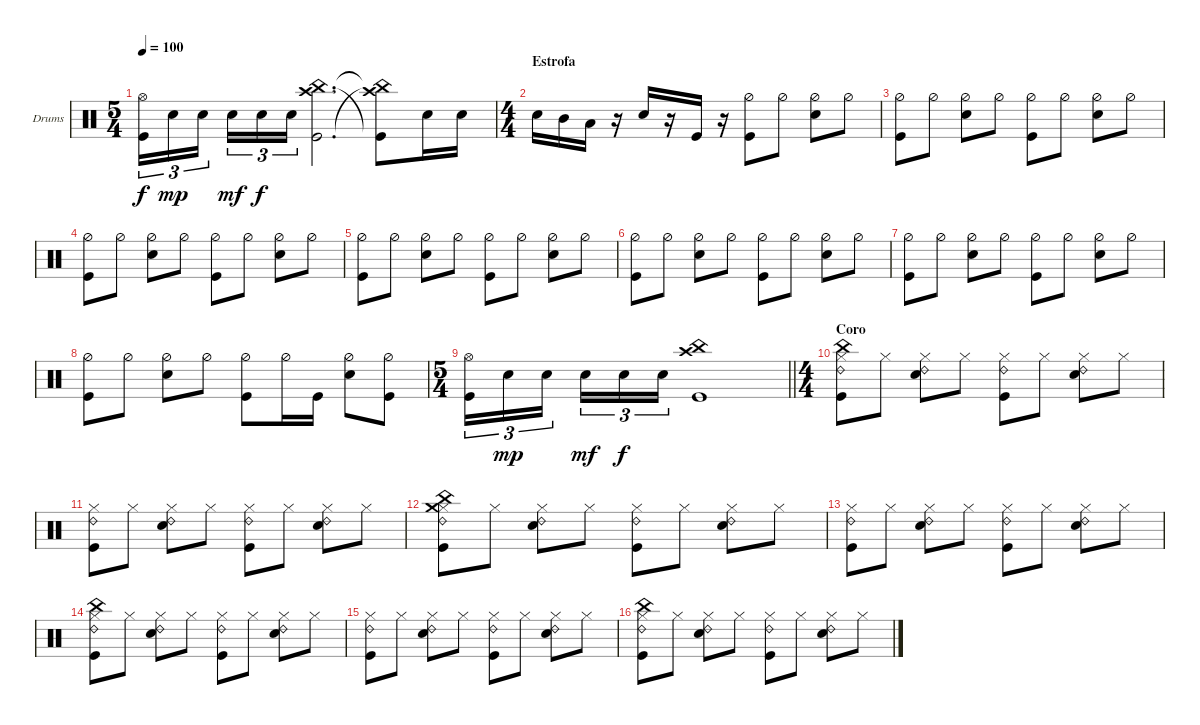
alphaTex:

\defaultSystemsLayout 4
\bracketExtendMode groupsimilarinstruments
\firstSystemTrackNameOrientation horizontal
\otherSystemsTrackNameOrientation horizontal
\track ("Drumkit" "Drums") {instrument percussion}
\staff {score}
\articulation defaults
\ts (5 4)
\tempo 100
\clef neutral
\ks c
("Hi-Hat (open)" "Kick (hit)").16{tu (3 2) dy f} "Snare (hit) 2".16{tu (3 2) dy mp} "Snare (hit) 2".16{tu (3 2)} "Snare (hit) 2".16{tu (3 2) dy mf} "Snare (hit) 2".16{tu (3 2) dy f} "Snare (hit) 2".16{tu (3 2)} ("Crash high (hit)" "Kick (hit)" "China (hit)").2{d} ("Kick (hit)"{t} "Crash high (hit)"{t} "China (hit)"{t}).8 "Snare (hit) 2".16 "Snare (hit) 2".16 |
\ts (4 4)
\section ("" "Estrofa")
"Snare (hit) 2".16 "Mid Tom (hit)".16 "Low Tom (hit)".16 r.16 "Snare (hit) 2".16 r.16 "Kick (hit)".16 r.16 ("Hi-Hat (half)" "Kick (hit)").8 "Hi-Hat (half)".8 ("Hi-Hat (half)" "Snare (hit) 2").8 "Hi-Hat (half)".8 |
("Hi-Hat (half)" "Kick (hit)").8 "Hi-Hat (half)".8 ("Hi-Hat (half)" "Snare (hit) 2").8 "Hi-Hat (half)".8 ("Hi-Hat (half)" "Kick (hit)").8 "Hi-Hat (half)".8 ("Hi-Hat (half)" "Snare (hit) 2").8 "Hi-Hat (half)".8 |
("Hi-Hat (half)" "Kick (hit)").8 "Hi-Hat (half)".8 ("Hi-Hat (half)" "Snare (hit) 2").8 "Hi-Hat (half)".8 ("Hi-Hat (half)" "Kick (hit)").8 "Hi-Hat (half)".8 ("Hi-Hat (half)" "Snare (hit) 2").8 "Hi-Hat (half)".8 |
("Hi-Hat (half)" "Kick (hit)").8 "Hi-Hat (half)".8 ("Hi-Hat (half)" "Snare (hit) 2").8 "Hi-Hat (half)".8 ("Hi-Hat (half)" "Kick (hit)").8 "Hi-Hat (half)".8 ("Hi-Hat (half)" "Snare (hit) 2").8 "Hi-Hat (half)".8 |
("Hi-Hat (half)" "Kick (hit)").8 "Hi-Hat (half)".8 ("Hi-Hat (half)" "Snare (hit) 2").8 "Hi-Hat (half)".8 ("Hi-Hat (half)" "Kick (hit)").8 "Hi-Hat (half)".8 ("Hi-Hat (half)" "Snare (hit) 2").8 "Hi-Hat (half)".8 |
("Hi-Hat (half)" "Kick (hit)").8 "Hi-Hat (half)".8 ("Hi-Hat (half)" "Snare (hit) 2").8 "Hi-Hat (half)".8 ("Hi-Hat (half)" "Kick (hit)").8 "Hi-Hat (half)".8 ("Hi-Hat (half)" "Snare (hit) 2").8 "Hi-Hat (half)".8 |
("Hi-Hat (half)" "Kick (hit)").8 "Hi-Hat (half)".8 ("Hi-Hat (half)" "Snare (hit) 2").8 "Hi-Hat (half)".8 ("Hi-Hat (half)" "Kick (hit)").8 "Hi-Hat (half)".16 "Kick (hit)".16 ("Hi-Hat (half)" "Snare (hit) 2").8 ("Hi-Hat (half)" "Kick (hit)").8 |
\ts (5 4)
\barLineRight lightlight
("Hi-Hat (open)" "Kick (hit)").16{tu (3 2)} "Snare (hit) 2".16{tu (3 2) dy mp} "Snare (hit) 2".16{tu (3 2)} "Snare (hit) 2".16{tu (3 2) dy mf} "Snare (hit) 2".16{tu (3 2) dy f} "Snare (hit) 2".16{tu (3 2)} ("Crash high (hit)" "Kick (hit)" "China (hit)").1 |
\ts (4 4)
\section ("" "Coro")
("Ride (bell) 2" "Kick (hit)" "Hi-Hat (closed)" "China (hit)").8 "Hi-Hat (closed)".8 ("Hi-Hat (closed)" "Ride (bell) 2" "Snare (hit) 2").8 "Hi-Hat (closed)".8 ("Hi-Hat (closed)" "Ride (bell) 2" "Kick (hit)").8 "Hi-Hat (closed)".8 ("Hi-Hat (closed)" "Ride (bell) 2" "Snare (hit) 2").8 "Hi-Hat (closed)".8 |
("Ride (bell) 2" "Kick (hit)" "Hi-Hat (closed)").8 "Hi-Hat (closed)".8 ("Hi-Hat (closed)" "Ride (bell) 2" "Snare (hit) 2").8 "Hi-Hat (closed)".8 ("Hi-Hat (closed)" "Ride (bell) 2" "Kick (hit)").8 "Hi-Hat (closed)".8 ("Hi-Hat (closed)" "Ride (bell) 2" "Snare (hit) 2").8 "Hi-Hat (closed)".8 |
("Ride (bell) 2" "Kick (hit)" "Hi-Hat (closed)" "Crash medium (hit)" "China (hit)").8 "Hi-Hat (closed)".8 ("Hi-Hat (closed)" "Ride (bell) 2" "Snare (hit) 2").8 "Hi-Hat (closed)".8 ("Hi-Hat (closed)" "Ride (bell) 2" "Kick (hit)").8 "Hi-Hat (closed)".8 ("Hi-Hat (closed)" "Ride (bell) 2" "Snare (hit) 2").8 "Hi-Hat (closed)".8 |
("Ride (bell) 2" "Kick (hit)" "Hi-Hat (closed)").8 "Hi-Hat (closed)".8 ("Hi-Hat (closed)" "Ride (bell) 2" "Snare (hit) 2").8 "Hi-Hat (closed)".8 ("Hi-Hat (closed)" "Ride (bell) 2" "Kick (hit)").8 "Hi-Hat (closed)".8 ("Hi-Hat (closed)" "Ride (bell) 2" "Snare (hit) 2").8 "Hi-Hat (closed)".8 |
("Ride (bell) 2" "Kick (hit)" "Hi-Hat (closed)" "China (hit)").8 "Hi-Hat (closed)".8 ("Hi-Hat (closed)" "Ride (bell) 2" "Snare (hit) 2").8 "Hi-Hat (closed)".8 ("Hi-Hat (closed)" "Ride (bell) 2" "Kick (hit)").8 "Hi-Hat (closed)".8 ("Hi-Hat (closed)" "Ride (bell) 2" "Snare (hit) 2").8 "Hi-Hat (closed)".8 |
("Ride (bell) 2" "Kick (hit)" "Hi-Hat (closed)").8 "Hi-Hat (closed)".8 ("Hi-Hat (closed)" "Ride (bell) 2" "Snare (hit) 2").8 "Hi-Hat (closed)".8 ("Hi-Hat (closed)" "Ride (bell) 2" "Kick (hit)").8 "Hi-Hat (closed)".8 ("Hi-Hat (closed)" "Ride (bell) 2" "Snare (hit) 2").8 "Hi-Hat (closed)".8 |
("Ride (bell) 2" "Kick (hit)" "Hi-Hat (closed)" "China (hit)").8 "Hi-Hat (closed)".8 ("Hi-Hat (closed)" "Ride (bell) 2" "Snare (hit) 2").8 "Hi-Hat (closed)".8 ("Hi-Hat (closed)" "Ride (bell) 2" "Kick (hit)").8 "Hi-Hat (closed)".8 ("Hi-Hat (closed)" "Ride (bell) 2" "Snare (hit) 2").8 "Hi-Hat (closed)".8
